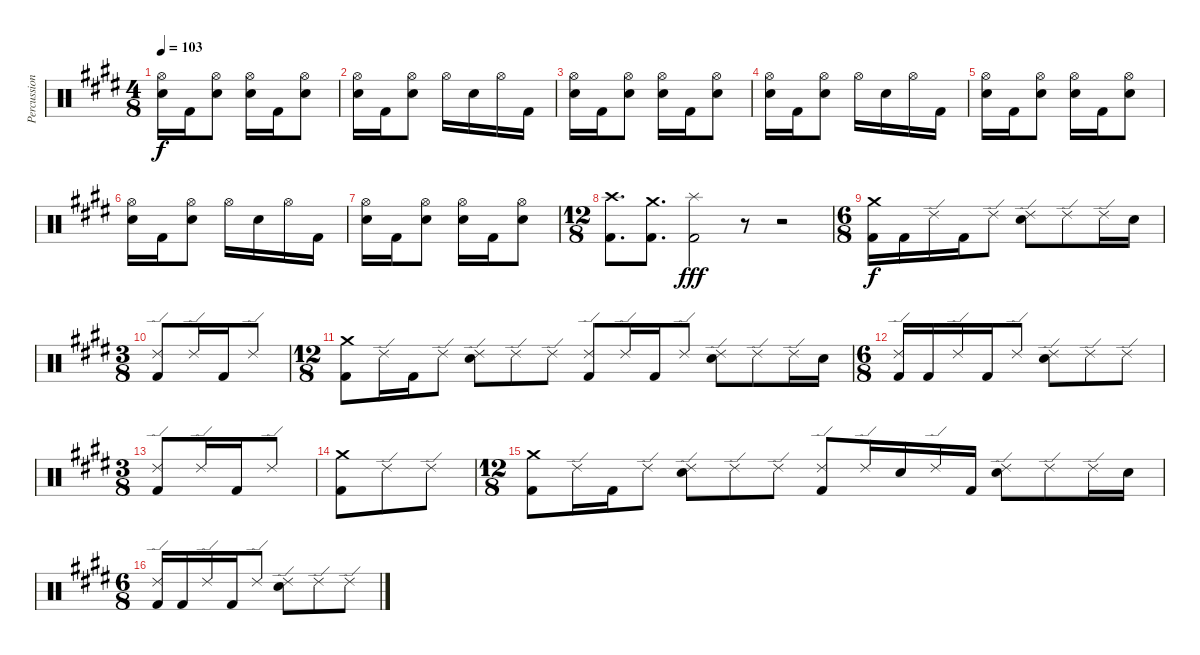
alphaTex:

\track ("Percussion" "Percussion") {instrument percussion}
\staff {score}
\articulation defaults
\ts (4 8)
\tempo 103
\clef neutral
\ks c#minor
("Hi-Hat (open)" "Electric Snare (hit)").16{dy f} "Kick (hit) 2".16 ("Hi-Hat (open)" "Electric Snare (hit)").8 ("Hi-Hat (open)" "Electric Snare (hit)").16 "Kick (hit) 2".16 ("Hi-Hat (open)" "Electric Snare (hit)").8 |
("Hi-Hat (open)" "Electric Snare (hit)").16 "Kick (hit) 2".16 ("Hi-Hat (open)" "Electric Snare (hit)").8 "Hi-Hat (open)".16 "Electric Snare (hit)".16 "Hi-Hat (open)".16 "Kick (hit) 2".16 |
("Hi-Hat (open)" "Electric Snare (hit)").16 "Kick (hit) 2".16 ("Hi-Hat (open)" "Electric Snare (hit)").8 ("Hi-Hat (open)" "Electric Snare (hit)").16 "Kick (hit) 2".16 ("Hi-Hat (open)" "Electric Snare (hit)").8 |
\ks e
("Hi-Hat (open)" "Electric Snare (hit)").16 "Kick (hit) 2".16 ("Hi-Hat (open)" "Electric Snare (hit)").8 "Hi-Hat (open)".16 "Electric Snare (hit)".16 "Hi-Hat (open)".16 "Kick (hit) 2".16 |
\ks c#minor
("Hi-Hat (open)" "Electric Snare (hit)").16 "Kick (hit) 2".16 ("Hi-Hat (open)" "Electric Snare (hit)").8 ("Hi-Hat (open)" "Electric Snare (hit)").16 "Kick (hit) 2".16 ("Hi-Hat (open)" "Electric Snare (hit)").8 |
("Hi-Hat (open)" "Electric Snare (hit)").16 "Kick (hit) 2".16 ("Hi-Hat (open)" "Electric Snare (hit)").8 "Hi-Hat (open)".16 "Electric Snare (hit)".16 "Hi-Hat (open)".16 "Kick (hit) 2".16 |
("Hi-Hat (open)" "Electric Snare (hit)").16 "Kick (hit) 2".16 ("Hi-Hat (open)" "Electric Snare (hit)").8 ("Hi-Hat (open)" "Electric Snare (hit)").16 "Kick (hit) 2".16 ("Hi-Hat (open)" "Electric Snare (hit)").8 |
\ts (12 8)
\ks e
("Crash high (hit)" "Kick (hit) 2").8{d} ("Crash medium (hit)" "Kick (hit) 2").8{d} ("Splash (hit)" "Kick (hit) 2").2{dy fff} r.8 r.2 |
\ts (6 8)
("Crash medium (hit)" "Kick (hit) 2").16{dy f} "Kick (hit) 2".16 "Ride (edge) 2".16 "Kick (hit) 2".16 "Ride (edge) 2".8 ("Ride (edge) 2" "Electric Snare (hit)").8 "Ride (edge) 2".8 "Ride (edge) 2".16 "Electric Snare (hit)".16 |
\ts (3 8)
\ks c#minor
("Ride (edge) 2" "Kick (hit) 2").8 "Ride (edge) 2".16 "Kick (hit) 2".16 "Ride (edge) 2".8 |
\ts (12 8)
("Crash medium (hit)" "Kick (hit) 2").8 "Ride (edge) 2".16 "Kick (hit) 2".16 "Ride (edge) 2".8 ("Ride (edge) 2" "Electric Snare (hit)").8 "Ride (edge) 2".8 "Ride (edge) 2".8 ("Ride (edge) 2" "Kick (hit) 2").8 "Ride (edge) 2".16 "Kick (hit) 2".16 "Ride (edge) 2".8 ("Ride (edge) 2" "Electric Snare (hit)").8 "Ride (edge) 2".8 "Ride (edge) 2".16 "Electric Snare (hit)".16 |
\ts (6 8)
\ks e
("Ride (edge) 2" "Kick (hit) 2").16 "Kick (hit) 2".16 "Ride (edge) 2".16 "Kick (hit) 2".16 "Ride (edge) 2".8 ("Ride (edge) 2" "Electric Snare (hit)").8 "Ride (edge) 2".8 "Ride (edge) 2".8 |
\ts (3 8)
\ks c#minor
("Ride (edge) 2" "Kick (hit) 2").8{beam merge} "Ride (edge) 2".16 "Kick (hit) 2".16{beam merge} "Ride (edge) 2".8 |
("Crash medium (hit)" "Kick (hit) 2").8 "Ride (edge) 2".8{beam merge} "Ride (edge) 2".8 |
\ts (12 8)
("Crash medium (hit)" "Kick (hit) 2").8 "Ride (edge) 2".16 "Kick (hit) 2".16 "Ride (edge) 2".8 ("Ride (edge) 2" "Electric Snare (hit)").8 "Ride (edge) 2".8 "Ride (edge) 2".8 ("Ride (edge) 2" "Kick (hit) 2").8 "Ride (edge) 2".16 "Electric Snare (hit)".16 "Ride (edge) 2".16 "Kick (hit) 2".16 ("Ride (edge) 2" "Electric Snare (hit)").8 "Ride (edge) 2".8 "Ride (edge) 2".16 "Electric Snare (hit)".16 |
\ts (6 8)
\ks e
("Ride (edge) 2" "Kick (hit) 2").16 "Kick (hit) 2".16 "Ride (edge) 2".16 "Kick (hit) 2".16 "Ride (edge) 2".8 ("Ride (edge) 2" "Electric Snare (hit)").8 "Ride (edge) 2".8 "Ride (edge) 2".8
